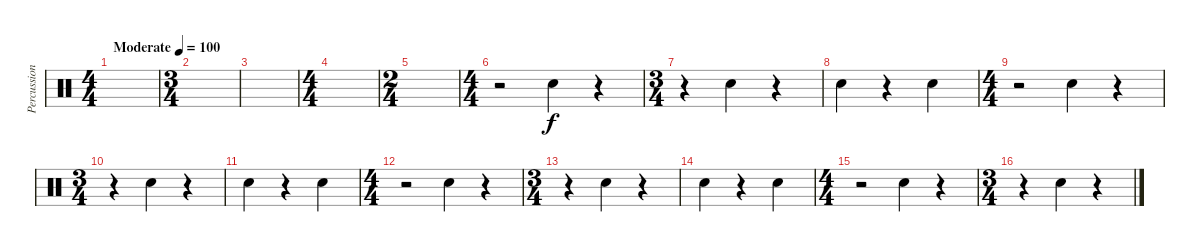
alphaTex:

\track ("Percussion" "Percussion") {mute instrument percussion}
\staff {score}
\articulation defaults
\ts (4 4)
\tempo (100 "Moderate")
\clef neutral
\ks c
|
\ts (3 4)
|
|
\ts (4 4)
|
\ts (2 4)
|
\ts (4 4)
r.2 "Electric Snare (hit)".4 r.4 |
\ts (3 4)
r.4 "Electric Snare (hit)".4 r.4 |
"Electric Snare (hit)".4 r.4 "Electric Snare (hit)".4 |
\ts (4 4)
r.2 "Electric Snare (hit)".4 r.4 |
\ts (3 4)
r.4 "Electric Snare (hit)".4 r.4 |
"Electric Snare (hit)".4 r.4 "Electric Snare (hit)".4 |
\ts (4 4)
r.2 "Electric Snare (hit)".4 r.4 |
\ts (3 4)
r.4 "Electric Snare (hit)".4 r.4 |
"Electric Snare (hit)".4 r.4 "Electric Snare (hit)".4 |
\ts (4 4)
r.2 "Electric Snare (hit)".4 r.4 |
\ts (3 4)
r.4 "Electric Snare (hit)".4 r.4
